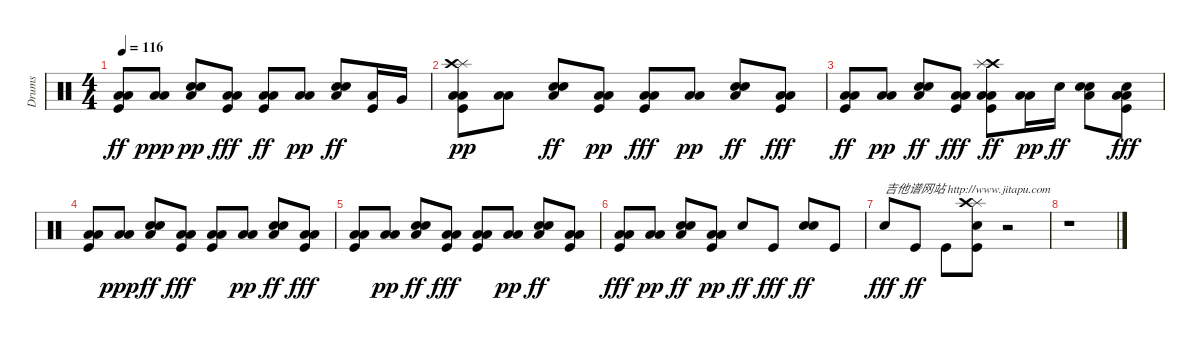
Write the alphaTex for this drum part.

\track ("Drums" "Drums") {instrument percussion}
\staff {score}
\articulation defaults
\ts (4 4)
\tempo 116
\clef neutral
\ks c
("Low Tom (hit)" "Low Floor Tom (hit)" "Kick (hit)").8{dy ff} ("Low Floor Tom (hit)" "Low Tom (hit)").8{dy ppp} ("Hand Clap (hit)" "Snare (hit) 2" "Low Floor Tom (hit)").8{dy pp} ("Low Tom (hit)" "Low Floor Tom (hit)" "Kick (hit)").8{dy fff} ("Low Tom (hit)" "Low Floor Tom (hit)" "Kick (hit)").8{dy ff} ("Low Tom (hit)" "Low Floor Tom (hit)").8{dy pp} ("Low Floor Tom (hit)" "Hand Clap (hit)" "Snare (hit) 2").8{dy ff} ("Kick (hit)" "Low Tom (hit)").16 "Very Low Tom (hit)".16 |
("Kick (hit)" "Splash (hit)" "Low Tom (hit)" "Low Floor Tom (hit)" "Crash high (hit)").8{dy pp} ("Low Tom (hit)" "Low Floor Tom (hit)").8 ("Low Floor Tom (hit)" "Hand Clap (hit)" "Snare (hit) 2").8{dy ff} ("Kick (hit)" "Low Tom (hit)" "Low Floor Tom (hit)").8{dy pp} ("Low Tom (hit)" "Low Floor Tom (hit)" "Kick (hit)").8{dy fff} ("Low Tom (hit)" "Low Floor Tom (hit)").8{dy pp} ("Low Floor Tom (hit)" "Hand Clap (hit)" "Snare (hit) 2").8{dy ff} ("Low Tom (hit)" "Low Floor Tom (hit)" "Kick (hit)").8{dy fff} |
("Low Tom (hit)" "Low Floor Tom (hit)" "Kick (hit)").8{dy ff} ("Low Tom (hit)" "Low Floor Tom (hit)").8{dy pp} ("Low Floor Tom (hit)" "Snare (hit) 2" "Hand Clap (hit)").8{dy ff} ("Low Tom (hit)" "Low Floor Tom (hit)" "Kick (hit)").8{dy fff} ("Crash high (hit)" "Splash (hit)" "Low Tom (hit)" "Low Floor Tom (hit)" "Kick (hit)").8{dy ff} ("Low Floor Tom (hit)" "Low Tom (hit)").16{dy pp} "Snare (hit) 2".16{dy ff} ("Snare (hit) 2" "Low Floor Tom (hit)" "Hand Clap (hit)").8 ("Low Tom (hit)" "Low Floor Tom (hit)" "Kick (hit)" "Snare (hit) 2").8{dy fff} |
("Low Tom (hit)" "Low Floor Tom (hit)" "Kick (hit)").8 ("Low Floor Tom (hit)" "Low Tom (hit)").8{dy ppp} ("Hand Clap (hit)" "Low Floor Tom (hit)" "Snare (hit) 2").8{dy ff} ("Low Tom (hit)" "Low Floor Tom (hit)" "Kick (hit)").8{dy fff} ("Low Tom (hit)" "Low Floor Tom (hit)" "Kick (hit)").8 ("Low Tom (hit)" "Low Floor Tom (hit)").8{dy pp} ("Low Floor Tom (hit)" "Hand Clap (hit)" "Snare (hit) 2").8{dy ff} ("Low Tom (hit)" "Low Floor Tom (hit)" "Kick (hit)").8{dy fff} |
("Low Tom (hit)" "Low Floor Tom (hit)" "Kick (hit)").8 ("Low Tom (hit)" "Low Floor Tom (hit)").8{dy pp} ("Low Floor Tom (hit)" "Hand Clap (hit)" "Snare (hit) 2").8{dy ff} ("Low Tom (hit)" "Low Floor Tom (hit)" "Kick (hit)").8{dy fff} ("Low Tom (hit)" "Low Floor Tom (hit)" "Kick (hit)").8 ("Low Tom (hit)" "Low Floor Tom (hit)").8{dy pp} ("Low Floor Tom (hit)" "Hand Clap (hit)" "Snare (hit) 2").8{dy ff} ("Low Tom (hit)" "Low Floor Tom (hit)" "Kick (hit)").8 |
("Low Tom (hit)" "Low Floor Tom (hit)" "Kick (hit)").8{dy fff} ("Low Tom (hit)" "Low Floor Tom (hit)").8{dy pp} ("Snare (hit) 2" "Low Floor Tom (hit)" "Hand Clap (hit)").8{dy ff} ("Low Tom (hit)" "Low Floor Tom (hit)" "Kick (hit)").8{dy pp} "Snare (hit) 2".8{dy ff} "Kick (hit)".8{dy fff} ("Snare (hit) 2" "Hand Clap (hit)").8{dy ff} "Kick (hit)".8 |
"Snare (hit) 2".8{txt "吉他谱网站 http://www.jitapu.com" dy fff} "Kick (hit)".8{dy ff} "Kick (hit)".8 ("Splash (hit)" "Crash high (hit)" "Kick (hit)" "Snare (hit) 2").8 r.2 |
r.1
